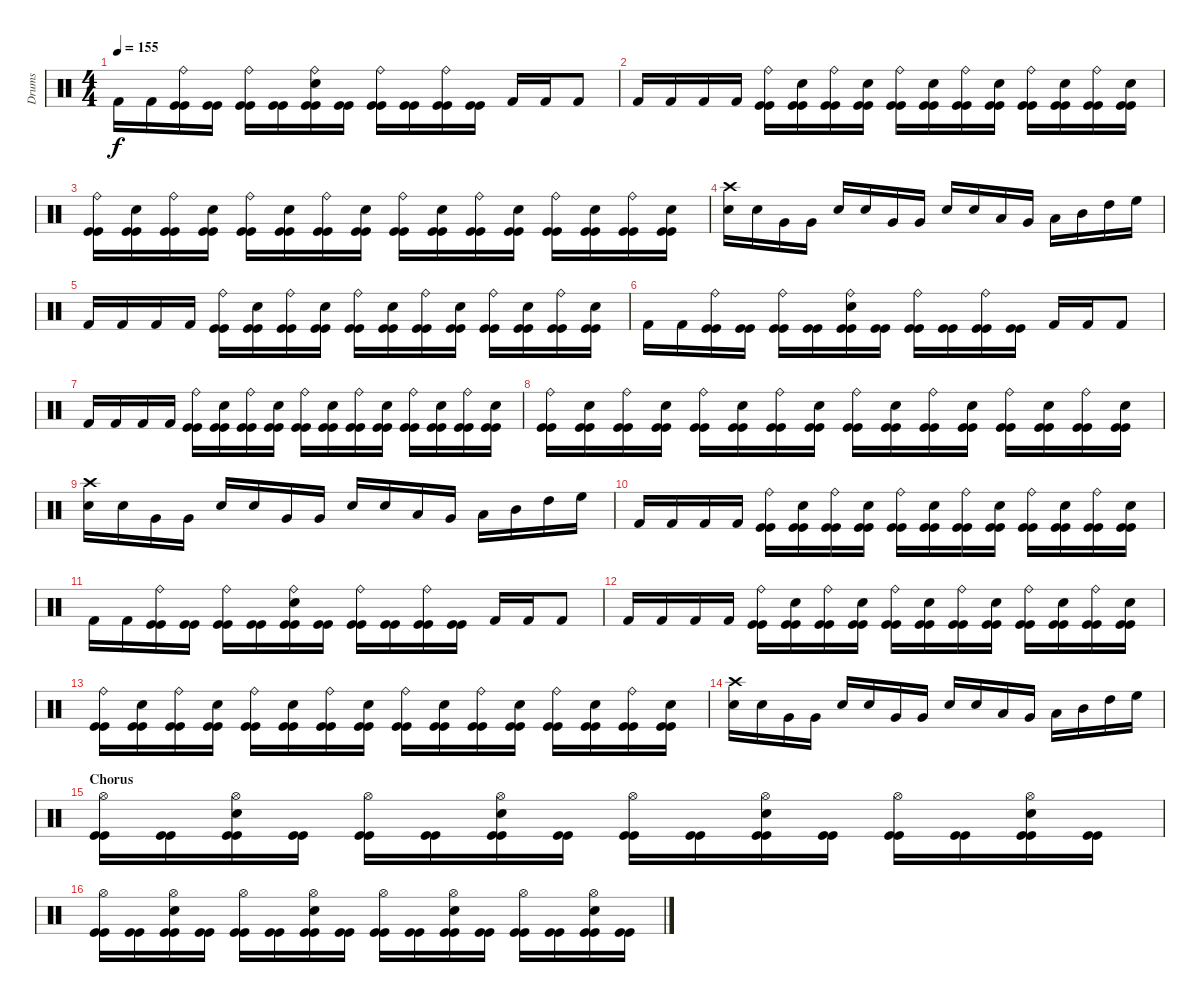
\track ("Drums" "Drums") {instrument percussion}
\staff {score}
\articulation defaults
\ts (4 4)
\tempo 155
\clef neutral
\ks c "Kick (hit) 2".16{dy f} "Kick (hit) 2".16
("Ride (bell)" "Kick (hit)" "Kick (hit)").16 ("Kick (hit)" "Kick (hit)").16 ("Ride (bell)" "Kick (hit)" "Kick (hit)").16 ("Kick (hit)" "Kick (hit)").16 ("Ride (bell)" "Electric Snare (hit)" "Kick (hit)" "Kick (hit)").16 ("Kick (hit)" "Kick (hit)").16 ("Ride (bell)" "Kick (hit)" "Kick (hit)").16 ("Kick (hit)" "Kick (hit)").16 ("Ride (bell)" "Kick (hit)" "Kick (hit)").16 ("Kick (hit)" "Kick (hit)").16 "Kick (hit) 2".16 "Kick (hit) 2".16 "Kick (hit) 2".8 |
"Kick (hit) 2".16 "Kick (hit) 2".16 "Kick (hit) 2".16 "Kick (hit) 2".16 ("Ride (bell)" "Kick (hit)" "Kick (hit)").16 ("Electric Snare (hit)" "Kick (hit)" "Kick (hit)").16 ("Ride (bell)" "Kick (hit)" "Kick (hit)").16 ("Electric Snare (hit)" "Kick (hit)" "Kick (hit)").16 ("Ride (bell)" "Kick (hit)" "Kick (hit)").16 ("Electric Snare (hit)" "Kick (hit)" "Kick (hit)").16 ("Ride (bell)" "Kick (hit)" "Kick (hit)").16 ("Electric Snare (hit)" "Kick (hit)" "Kick (hit)").16 ("Ride (bell)" "Kick (hit)" "Kick (hit)").16 ("Electric Snare (hit)" "Kick (hit)" "Kick (hit)").16 ("Ride (bell)" "Kick (hit)" "Kick (hit)").16 ("Electric Snare (hit)" "Kick (hit)" "Kick (hit)").16 |
("Ride (bell)" "Kick (hit)" "Kick (hit)").16 ("Electric Snare (hit)" "Kick (hit)" "Kick (hit)").16 ("Ride (bell)" "Kick (hit)" "Kick (hit)").16 ("Electric Snare (hit)" "Kick (hit)" "Kick (hit)").16 ("Ride (bell)" "Kick (hit)" "Kick (hit)").16 ("Electric Snare (hit)" "Kick (hit)" "Kick (hit)").16 ("Ride (bell)" "Kick (hit)" "Kick (hit)").16 ("Electric Snare (hit)" "Kick (hit)" "Kick (hit)").16 ("Ride (bell)" "Kick (hit)" "Kick (hit)").16 ("Electric Snare (hit)" "Kick (hit)" "Kick (hit)").16 ("Ride (bell)" "Kick (hit)" "Kick (hit)").16 ("Electric Snare (hit)" "Kick (hit)" "Kick (hit)").16 ("Ride (bell)" "Kick (hit)" "Kick (hit)").16 ("Electric Snare (hit)" "Kick (hit)" "Kick (hit)").16 ("Ride (bell)" "Kick (hit)" "Kick (hit)").16 ("Electric Snare (hit)" "Kick (hit)" "Kick (hit)").16 |
("Crash high (hit)" "Electric Snare (hit)").16 "Electric Snare (hit)".16 "Very Low Tom (hit)".16 "Very Low Tom (hit)".16 "Electric Snare (hit)".16 "Electric Snare (hit)".16 "Very Low Tom (hit)".16 "Very Low Tom (hit)".16 "Electric Snare (hit)".16 "Electric Snare (hit)".16 "Low Floor Tom (hit)".16 "Very Low Tom (hit)".16 "Low Tom (hit)".16 "Mid Tom (hit)".16 "High Tom (hit)".16 "High Floor Tom (hit)".16 |
"Kick (hit) 2".16 "Kick (hit) 2".16 "Kick (hit) 2".16 "Kick (hit) 2".16 ("Ride (bell)" "Kick (hit)" "Kick (hit)").16 ("Electric Snare (hit)" "Kick (hit)" "Kick (hit)").16 ("Ride (bell)" "Kick (hit)" "Kick (hit)").16 ("Electric Snare (hit)" "Kick (hit)" "Kick (hit)").16 ("Ride (bell)" "Kick (hit)" "Kick (hit)").16 ("Electric Snare (hit)" "Kick (hit)" "Kick (hit)").16 ("Ride (bell)" "Kick (hit)" "Kick (hit)").16 ("Electric Snare (hit)" "Kick (hit)" "Kick (hit)").16 ("Ride (bell)" "Kick (hit)" "Kick (hit)").16 ("Electric Snare (hit)" "Kick (hit)" "Kick (hit)").16 ("Ride (bell)" "Kick (hit)" "Kick (hit)").16 ("Electric Snare (hit)" "Kick (hit)" "Kick (hit)").16 |
"Kick (hit) 2".16 "Kick (hit) 2".16 ("Ride (bell)" "Kick (hit)" "Kick (hit)").16 ("Kick (hit)" "Kick (hit)").16 ("Ride (bell)" "Kick (hit)" "Kick (hit)").16 ("Kick (hit)" "Kick (hit)").16 ("Ride (bell)" "Electric Snare (hit)" "Kick (hit)" "Kick (hit)").16 ("Kick (hit)" "Kick (hit)").16 ("Ride (bell)" "Kick (hit)" "Kick (hit)").16 ("Kick (hit)" "Kick (hit)").16 ("Ride (bell)" "Kick (hit)" "Kick (hit)").16 ("Kick (hit)" "Kick (hit)").16 "Kick (hit) 2".16 "Kick (hit) 2".16 "Kick (hit) 2".8 |
"Kick (hit) 2".16 "Kick (hit) 2".16 "Kick (hit) 2".16 "Kick (hit) 2".16 ("Ride (bell)" "Kick (hit)" "Kick (hit)").16 ("Electric Snare (hit)" "Kick (hit)" "Kick (hit)").16 ("Ride (bell)" "Kick (hit)" "Kick (hit)").16 ("Electric Snare (hit)" "Kick (hit)" "Kick (hit)").16 ("Ride (bell)" "Kick (hit)" "Kick (hit)").16 ("Electric Snare (hit)" "Kick (hit)" "Kick (hit)").16 ("Ride (bell)" "Kick (hit)" "Kick (hit)").16 ("Electric Snare (hit)" "Kick (hit)" "Kick (hit)").16 ("Ride (bell)" "Kick (hit)" "Kick (hit)").16 ("Electric Snare (hit)" "Kick (hit)" "Kick (hit)").16 ("Ride (bell)" "Kick (hit)" "Kick (hit)").16 ("Electric Snare (hit)" "Kick (hit)" "Kick (hit)").16 |
("Ride (bell)" "Kick (hit)" "Kick (hit)").16 ("Electric Snare (hit)" "Kick (hit)" "Kick (hit)").16 ("Ride (bell)" "Kick (hit)" "Kick (hit)").16 ("Electric Snare (hit)" "Kick (hit)" "Kick (hit)").16 ("Ride (bell)" "Kick (hit)" "Kick (hit)").16 ("Electric Snare (hit)" "Kick (hit)" "Kick (hit)").16 ("Ride (bell)" "Kick (hit)" "Kick (hit)").16 ("Electric Snare (hit)" "Kick (hit)" "Kick (hit)").16 ("Ride (bell)" "Kick (hit)" "Kick (hit)").16 ("Electric Snare (hit)" "Kick (hit)" "Kick (hit)").16 ("Ride (bell)" "Kick (hit)" "Kick (hit)").16 ("Electric Snare (hit)" "Kick (hit)" "Kick (hit)").16 ("Ride (bell)" "Kick (hit)" "Kick (hit)").16 ("Electric Snare (hit)" "Kick (hit)" "Kick (hit)").16 ("Ride (bell)" "Kick (hit)" "Kick (hit)").16 ("Electric Snare (hit)" "Kick (hit)" "Kick (hit)").16 |
("Crash high (hit)" "Electric Snare (hit)").16 "Electric Snare (hit)".16 "Very Low Tom (hit)".16 "Very Low Tom (hit)".16 "Electric Snare (hit)".16 "Electric Snare (hit)".16 "Very Low Tom (hit)".16 "Very Low Tom (hit)".16 "Electric Snare (hit)".16 "Electric Snare (hit)".16 "Low Floor Tom (hit)".16 "Very Low Tom (hit)".16 "Low Tom (hit)".16 "Mid Tom (hit)".16 "High Tom (hit)".16 "High Floor Tom (hit)".16 |
"Kick (hit) 2".16 "Kick (hit) 2".16 "Kick (hit) 2".16 "Kick (hit) 2".16 ("Ride (bell)" "Kick (hit)" "Kick (hit)").16 ("Electric Snare (hit)" "Kick (hit)" "Kick (hit)").16 ("Ride (bell)" "Kick (hit)" "Kick (hit)").16 ("Electric Snare (hit)" "Kick (hit)" "Kick (hit)").16 ("Ride (bell)" "Kick (hit)" "Kick (hit)").16 ("Electric Snare (hit)" "Kick (hit)" "Kick (hit)").16 ("Ride (bell)" "Kick (hit)" "Kick (hit)").16 ("Electric Snare (hit)" "Kick (hit)" "Kick (hit)").16 ("Ride (bell)" "Kick (hit)" "Kick (hit)").16 ("Electric Snare (hit)" "Kick (hit)" "Kick (hit)").16 ("Ride (bell)" "Kick (hit)" "Kick (hit)").16 ("Electric Snare (hit)" "Kick (hit)" "Kick (hit)").16 |
"Kick (hit) 2".16 "Kick (hit) 2".16 ("Ride (bell)" "Kick (hit)" "Kick (hit)").16 ("Kick (hit)" "Kick (hit)").16 ("Ride (bell)" "Kick (hit)" "Kick (hit)").16 ("Kick (hit)" "Kick (hit)").16 ("Ride (bell)" "Electric Snare (hit)" "Kick (hit)" "Kick (hit)").16 ("Kick (hit)" "Kick (hit)").16 ("Ride (bell)" "Kick (hit)" "Kick (hit)").16 ("Kick (hit)" "Kick (hit)").16 ("Ride (bell)" "Kick (hit)" "Kick (hit)").16 ("Kick (hit)" "Kick (hit)").16 "Kick (hit) 2".16 "Kick (hit) 2".16 "Kick (hit) 2".8 |
"Kick (hit) 2".16 "Kick (hit) 2".16 "Kick (hit) 2".16 "Kick (hit) 2".16 ("Ride (bell)" "Kick (hit)" "Kick (hit)").16 ("Electric Snare (hit)" "Kick (hit)" "Kick (hit)").16 ("Ride (bell)" "Kick (hit)" "Kick (hit)").16 ("Electric Snare (hit)" "Kick (hit)" "Kick (hit)").16 ("Ride (bell)" "Kick (hit)" "Kick (hit)").16 ("Electric Snare (hit)" "Kick (hit)" "Kick (hit)").16 ("Ride (bell)" "Kick (hit)" "Kick (hit)").16 ("Electric Snare (hit)" "Kick (hit)" "Kick (hit)").16 ("Ride (bell)" "Kick (hit)" "Kick (hit)").16 ("Electric Snare (hit)" "Kick (hit)" "Kick (hit)").16 ("Ride (bell)" "Kick (hit)" "Kick (hit)").16 ("Electric Snare (hit)" "Kick (hit)" "Kick (hit)").16 |
("Ride (bell)" "Kick (hit)" "Kick (hit)").16 ("Electric Snare (hit)" "Kick (hit)" "Kick (hit)").16 ("Ride (bell)" "Kick (hit)" "Kick (hit)").16 ("Electric Snare (hit)" "Kick (hit)" "Kick (hit)").16 ("Ride (bell)" "Kick (hit)" "Kick (hit)").16 ("Electric Snare (hit)" "Kick (hit)" "Kick (hit)").16 ("Ride (bell)" "Kick (hit)" "Kick (hit)").16 ("Electric Snare (hit)" "Kick (hit)" "Kick (hit)").16 ("Ride (bell)" "Kick (hit)" "Kick (hit)").16 ("Electric Snare (hit)" "Kick (hit)" "Kick (hit)").16 ("Ride (bell)" "Kick (hit)" "Kick (hit)").16 ("Electric Snare (hit)" "Kick (hit)" "Kick (hit)").16 ("Ride (bell)" "Kick (hit)" "Kick (hit)").16 ("Electric Snare (hit)" "Kick (hit)" "Kick (hit)").16 ("Ride (bell)" "Kick (hit)" "Kick (hit)").16 ("Electric Snare (hit)" "Kick (hit)" "Kick (hit)").16 |
("Crash high (hit)" "Electric Snare (hit)").16 "Electric Snare (hit)".16 "Very Low Tom (hit)".16 "Very Low Tom (hit)".16 "Electric Snare (hit)".16 "Electric Snare (hit)".16 "Very Low Tom (hit)".16 "Very Low Tom (hit)".16 "Electric Snare (hit)".16 "Electric Snare (hit)".16 "Low Floor Tom (hit)".16 "Very Low Tom (hit)".16 "Low Tom (hit)".16 "Mid Tom (hit)".16 "High Tom (hit)".16 "High Floor Tom (hit)".16 |
\section ("" "Chorus")
("Hi-Hat (open)" "Kick (hit)" "Kick (hit)").16 ("Kick (hit)" "Kick (hit)").16 ("Hi-Hat (open)" "Electric Snare (hit)" "Kick (hit)" "Kick (hit)").16 ("Kick (hit)" "Kick (hit)").16 ("Hi-Hat (open)" "Kick (hit)" "Kick (hit)").16 ("Kick (hit)" "Kick (hit)").16 ("Hi-Hat (open)" "Electric Snare (hit)" "Kick (hit)" "Kick (hit)").16 ("Kick (hit)" "Kick (hit)").16 ("Hi-Hat (open)" "Kick (hit)" "Kick (hit)").16 ("Kick (hit)" "Kick (hit)").16 ("Hi-Hat (open)" "Electric Snare (hit)" "Kick (hit)" "Kick (hit)").16 ("Kick (hit)" "Kick (hit)").16 ("Hi-Hat (open)" "Kick (hit)" "Kick (hit)").16 ("Kick (hit)" "Kick (hit)").16 ("Hi-Hat (open)" "Electric Snare (hit)" "Kick (hit)" "Kick (hit)").16 ("Kick (hit)" "Kick (hit)").16 |
("Hi-Hat (open)" "Kick (hit)" "Kick (hit)").16 ("Kick (hit)" "Kick (hit)").16 ("Hi-Hat (open)" "Electric Snare (hit)" "Kick (hit)" "Kick (hit)").16 ("Kick (hit)" "Kick (hit)").16 ("Hi-Hat (open)" "Kick (hit)" "Kick (hit)").16 ("Kick (hit)" "Kick (hit)").16 ("Hi-Hat (open)" "Electric Snare (hit)" "Kick (hit)" "Kick (hit)").16 ("Kick (hit)" "Kick (hit)").16 ("Hi-Hat (open)" "Kick (hit)" "Kick (hit)").16 ("Kick (hit)" "Kick (hit)").16 ("Hi-Hat (open)" "Electric Snare (hit)" "Kick (hit)" "Kick (hit)").16 ("Kick (hit)" "Kick (hit)").16 ("Hi-Hat (open)" "Kick (hit)" "Kick (hit)").16 ("Kick (hit)" "Kick (hit)").16 ("Hi-Hat (open)" "Electric Snare (hit)" "Kick (hit)" "Kick (hit)").16 ("Kick (hit)" "Kick (hit)").16
